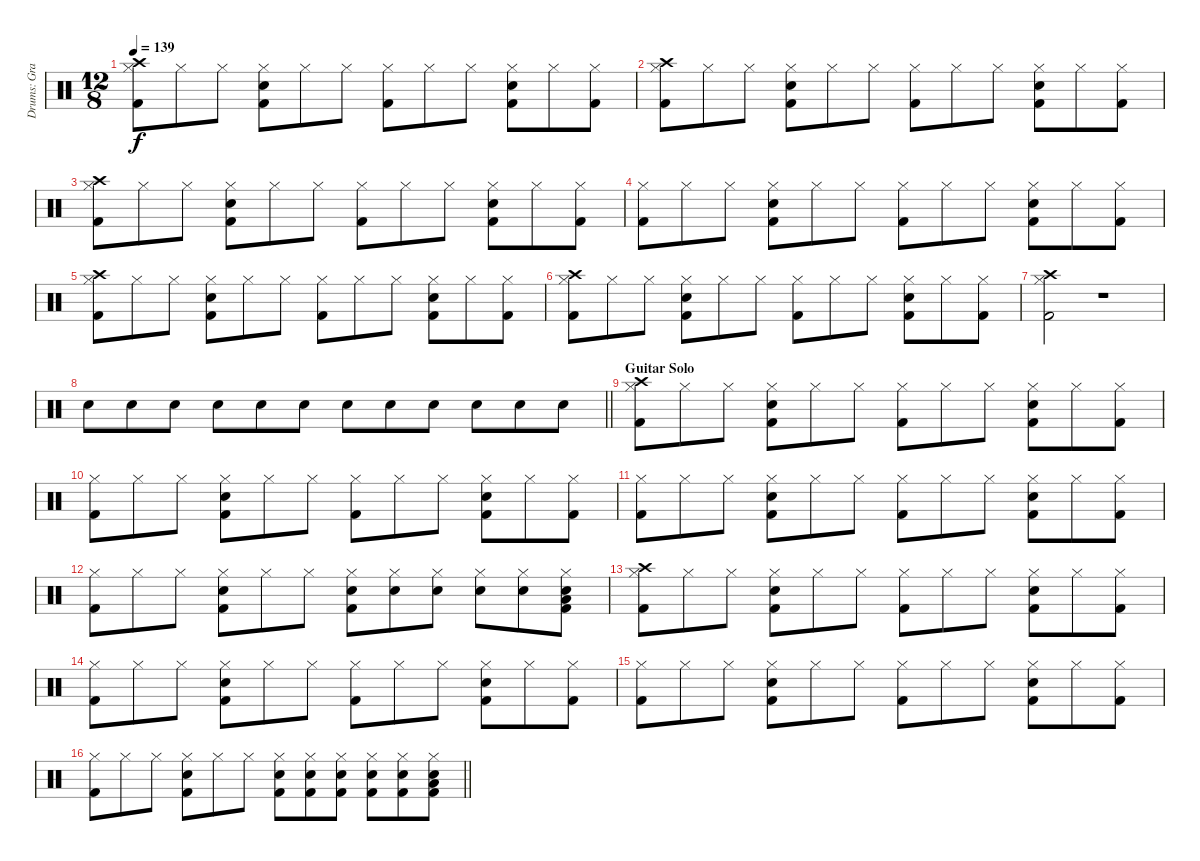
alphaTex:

\track ("Drums: Graeme Edge" "Drums: Gra") {instrument percussion}
\staff {score}
\articulation defaults
\ts (12 8)
\tempo 139
\clef neutral
\ks c
("Crash high (hit)" "Hi-Hat (closed)" "Kick (hit) 2").8{dy f} "Hi-Hat (closed)".8 "Hi-Hat (closed)".8 ("Hi-Hat (closed)" "Snare (hit) 2" "Kick (hit) 2").8 "Hi-Hat (closed)".8 "Hi-Hat (closed)".8 ("Hi-Hat (closed)" "Kick (hit) 2").8 "Hi-Hat (closed)".8 "Hi-Hat (closed)".8 ("Hi-Hat (closed)" "Snare (hit) 2" "Kick (hit) 2").8 "Hi-Hat (closed)".8 ("Hi-Hat (closed)" "Kick (hit) 2").8 |
("Crash high (hit)" "Hi-Hat (closed)" "Kick (hit) 2").8 "Hi-Hat (closed)".8 "Hi-Hat (closed)".8 ("Hi-Hat (closed)" "Snare (hit) 2" "Kick (hit) 2").8 "Hi-Hat (closed)".8 "Hi-Hat (closed)".8 ("Hi-Hat (closed)" "Kick (hit) 2").8 "Hi-Hat (closed)".8 "Hi-Hat (closed)".8 ("Hi-Hat (closed)" "Snare (hit) 2" "Kick (hit) 2").8 "Hi-Hat (closed)".8 ("Hi-Hat (closed)" "Kick (hit) 2").8 |
("Crash high (hit)" "Hi-Hat (closed)" "Kick (hit) 2").8 "Hi-Hat (closed)".8 "Hi-Hat (closed)".8 ("Hi-Hat (closed)" "Snare (hit) 2" "Kick (hit) 2").8 "Hi-Hat (closed)".8 "Hi-Hat (closed)".8 ("Hi-Hat (closed)" "Kick (hit) 2").8 "Hi-Hat (closed)".8 "Hi-Hat (closed)".8 ("Hi-Hat (closed)" "Snare (hit) 2" "Kick (hit) 2").8 "Hi-Hat (closed)".8 ("Hi-Hat (closed)" "Kick (hit) 2").8 |
("Hi-Hat (closed)" "Kick (hit) 2").8 "Hi-Hat (closed)".8 "Hi-Hat (closed)".8 ("Hi-Hat (closed)" "Snare (hit) 2" "Kick (hit) 2").8 "Hi-Hat (closed)".8 "Hi-Hat (closed)".8 ("Hi-Hat (closed)" "Kick (hit) 2").8 "Hi-Hat (closed)".8 "Hi-Hat (closed)".8 ("Hi-Hat (closed)" "Snare (hit) 2" "Kick (hit) 2").8 "Hi-Hat (closed)".8 ("Hi-Hat (closed)" "Kick (hit) 2").8 |
("Crash high (hit)" "Hi-Hat (closed)" "Kick (hit) 2").8 "Hi-Hat (closed)".8 "Hi-Hat (closed)".8 ("Hi-Hat (closed)" "Snare (hit) 2" "Kick (hit) 2").8 "Hi-Hat (closed)".8 "Hi-Hat (closed)".8 ("Hi-Hat (closed)" "Kick (hit) 2").8 "Hi-Hat (closed)".8 "Hi-Hat (closed)".8 ("Hi-Hat (closed)" "Snare (hit) 2" "Kick (hit) 2").8 "Hi-Hat (closed)".8 ("Hi-Hat (closed)" "Kick (hit) 2").8 |
("Crash high (hit)" "Hi-Hat (closed)" "Kick (hit) 2").8 "Hi-Hat (closed)".8 "Hi-Hat (closed)".8 ("Hi-Hat (closed)" "Snare (hit) 2" "Kick (hit) 2").8 "Hi-Hat (closed)".8 "Hi-Hat (closed)".8 ("Hi-Hat (closed)" "Kick (hit) 2").8 "Hi-Hat (closed)".8 "Hi-Hat (closed)".8 ("Hi-Hat (closed)" "Snare (hit) 2" "Kick (hit) 2").8 "Hi-Hat (closed)".8 ("Hi-Hat (closed)" "Kick (hit) 2").8 |
("Crash high (hit)" "Kick (hit) 2" "Hi-Hat (closed)").2 r.1 |
\barLineRight lightlight "Snare (hit) 2".8 "Snare (hit) 2".8 "Snare (hit) 2".8 "Snare (hit) 2".8 "Snare (hit) 2".8 "Snare (hit) 2".8 "Snare (hit) 2".8 "Snare (hit) 2".8 "Snare (hit) 2".8 "Snare (hit) 2".8 "Snare (hit) 2".8 "Snare (hit) 2".8
|
\section ("" "Guitar Solo")
("Crash high (hit)" "Hi-Hat (closed)" "Kick (hit) 2").8 "Hi-Hat (closed)".8 "Hi-Hat (closed)".8 ("Hi-Hat (closed)" "Snare (hit) 2" "Kick (hit) 2").8 "Hi-Hat (closed)".8 "Hi-Hat (closed)".8 ("Hi-Hat (closed)" "Kick (hit) 2").8 "Hi-Hat (closed)".8 "Hi-Hat (closed)".8 ("Hi-Hat (closed)" "Snare (hit) 2" "Kick (hit) 2").8 "Hi-Hat (closed)".8 ("Hi-Hat (closed)" "Kick (hit) 2").8 |
("Hi-Hat (closed)" "Kick (hit) 2").8 "Hi-Hat (closed)".8 "Hi-Hat (closed)".8 ("Hi-Hat (closed)" "Snare (hit) 2" "Kick (hit) 2").8 "Hi-Hat (closed)".8 "Hi-Hat (closed)".8 ("Hi-Hat (closed)" "Kick (hit) 2").8 "Hi-Hat (closed)".8 "Hi-Hat (closed)".8 ("Hi-Hat (closed)" "Snare (hit) 2" "Kick (hit) 2").8 "Hi-Hat (closed)".8 ("Hi-Hat (closed)" "Kick (hit) 2").8 |
("Hi-Hat (closed)" "Kick (hit) 2").8 "Hi-Hat (closed)".8 "Hi-Hat (closed)".8 ("Hi-Hat (closed)" "Snare (hit) 2" "Kick (hit) 2").8 "Hi-Hat (closed)".8 "Hi-Hat (closed)".8 ("Hi-Hat (closed)" "Kick (hit) 2").8 "Hi-Hat (closed)".8 "Hi-Hat (closed)".8 ("Hi-Hat (closed)" "Snare (hit) 2" "Kick (hit) 2").8 "Hi-Hat (closed)".8 ("Hi-Hat (closed)" "Kick (hit) 2").8 |
("Hi-Hat (closed)" "Kick (hit) 2").8 "Hi-Hat (closed)".8 "Hi-Hat (closed)".8 ("Hi-Hat (closed)" "Snare (hit) 2" "Kick (hit) 2").8 "Hi-Hat (closed)".8 "Hi-Hat (closed)".8 ("Hi-Hat (closed)" "Snare (hit) 2" "Kick (hit) 2").8 ("Hi-Hat (closed)" "Snare (hit) 2").8 ("Hi-Hat (closed)" "Snare (hit) 2").8 ("Hi-Hat (closed)" "Snare (hit) 2").8 ("Hi-Hat (closed)" "Snare (hit) 2").8 ("Hi-Hat (closed)" "Snare (hit) 2" "Low Tom (hit)" "Kick (hit) 2").8 |
("Crash high (hit)" "Hi-Hat (closed)" "Kick (hit) 2").8 "Hi-Hat (closed)".8 "Hi-Hat (closed)".8 ("Hi-Hat (closed)" "Snare (hit) 2" "Kick (hit) 2").8 "Hi-Hat (closed)".8 "Hi-Hat (closed)".8 ("Hi-Hat (closed)" "Kick (hit) 2").8 "Hi-Hat (closed)".8 "Hi-Hat (closed)".8 ("Hi-Hat (closed)" "Snare (hit) 2" "Kick (hit) 2").8 "Hi-Hat (closed)".8 ("Hi-Hat (closed)" "Kick (hit) 2").8 |
("Hi-Hat (closed)" "Kick (hit) 2").8 "Hi-Hat (closed)".8 "Hi-Hat (closed)".8 ("Hi-Hat (closed)" "Snare (hit) 2" "Kick (hit) 2").8 "Hi-Hat (closed)".8 "Hi-Hat (closed)".8 ("Hi-Hat (closed)" "Kick (hit) 2").8 "Hi-Hat (closed)".8 "Hi-Hat (closed)".8 ("Hi-Hat (closed)" "Snare (hit) 2" "Kick (hit) 2").8 "Hi-Hat (closed)".8 ("Hi-Hat (closed)" "Kick (hit) 2").8 |
("Hi-Hat (closed)" "Kick (hit) 2").8 "Hi-Hat (closed)".8 "Hi-Hat (closed)".8 ("Hi-Hat (closed)" "Snare (hit) 2" "Kick (hit) 2").8 "Hi-Hat (closed)".8 "Hi-Hat (closed)".8 ("Hi-Hat (closed)" "Kick (hit) 2").8 "Hi-Hat (closed)".8 "Hi-Hat (closed)".8 ("Hi-Hat (closed)" "Snare (hit) 2" "Kick (hit) 2").8 "Hi-Hat (closed)".8 ("Hi-Hat (closed)" "Kick (hit) 2").8 |
\barLineRight lightlight
("Hi-Hat (closed)" "Kick (hit) 2").8 "Hi-Hat (closed)".8 "Hi-Hat (closed)".8 ("Hi-Hat (closed)" "Snare (hit) 2" "Kick (hit) 2").8 "Hi-Hat (closed)".8 "Hi-Hat (closed)".8 ("Hi-Hat (closed)" "Snare (hit) 2" "Kick (hit) 2").8 ("Hi-Hat (closed)" "Snare (hit) 2" "Kick (hit) 2").8 ("Hi-Hat (closed)" "Snare (hit) 2" "Kick (hit) 2").8 ("Hi-Hat (closed)" "Snare (hit) 2" "Kick (hit) 2").8 ("Hi-Hat (closed)" "Snare (hit) 2" "Kick (hit) 2").8 ("Hi-Hat (closed)" "Snare (hit) 2" "Low Tom (hit)" "Kick (hit) 2").8
